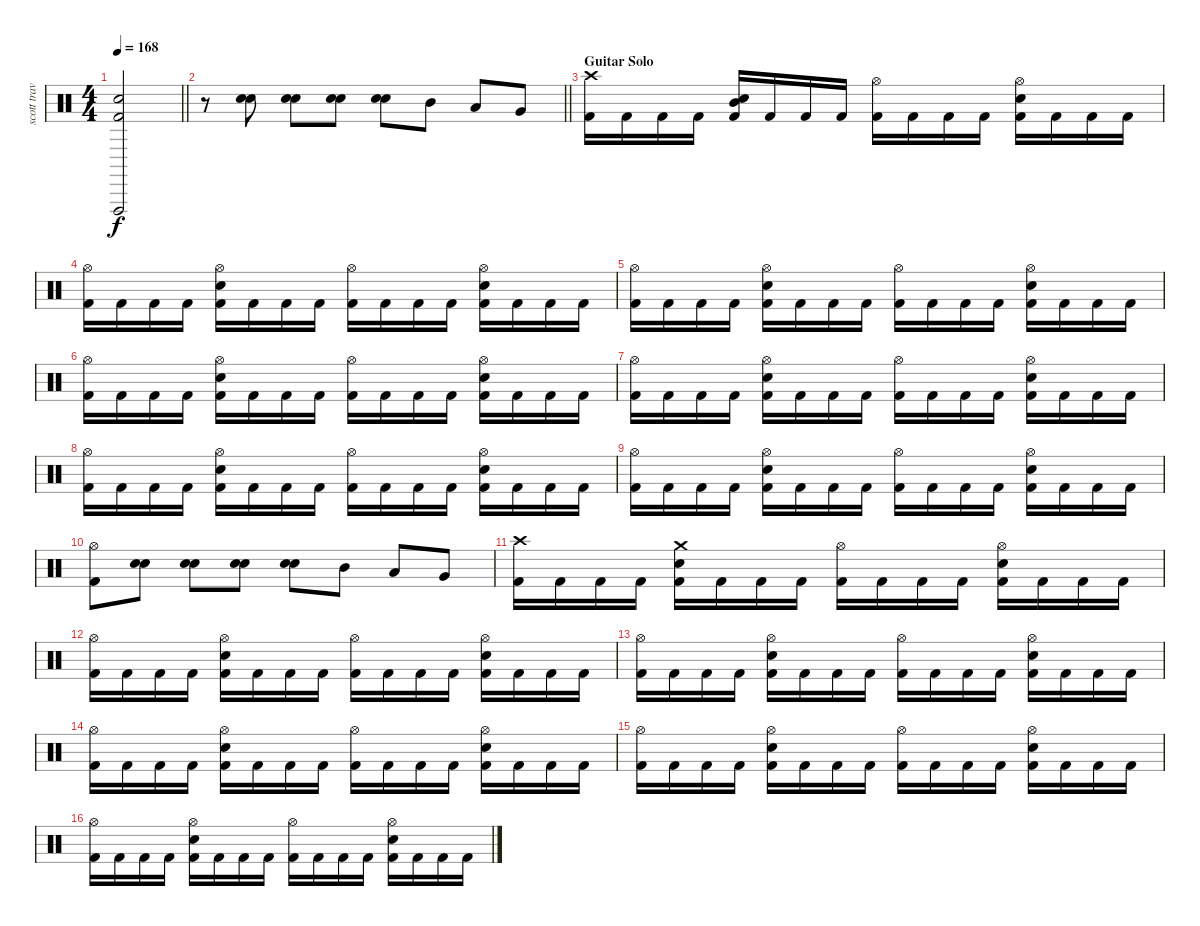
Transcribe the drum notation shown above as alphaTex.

\track ("scott travis" "scott trav") {instrument percussion}
\staff {score}
\articulation defaults
\ts (4 4)
\tempo 168
\clef neutral
\barLineRight lightlight
\ks c
("Vibraslap (hit)"{t} "Snare (hit) 2"{t} "Kick (hit) 2"{t}).2{dy f} |
\barLineRight lightlight
r.8 ("Snare (hit) 2" "Snare (hit) 2").8 ("Snare (hit) 2" "Snare (hit) 2").8 ("Snare (hit) 2" "Snare (hit) 2").8 ("Snare (hit) 2" "Snare (hit) 2").8 "Mid Tom (hit)".8 "Low Tom (hit)".8 "Very Low Tom (hit)".8 |
\section ("" "Guitar Solo")
("Crash high (hit)" "Kick (hit) 2").16 "Kick (hit) 2".16 "Kick (hit) 2".16 "Kick (hit) 2".16 ("Mid Tom (hit)" "Snare (hit) 2" "Kick (hit) 2").16 "Kick (hit) 2".16 "Kick (hit) 2".16 "Kick (hit) 2".16 ("Hi-Hat (open)" "Kick (hit) 2").16 "Kick (hit) 2".16 "Kick (hit) 2".16 "Kick (hit) 2".16 ("Hi-Hat (open)" "Snare (hit) 2" "Kick (hit) 2").16 "Kick (hit) 2".16 "Kick (hit) 2".16 "Kick (hit) 2".16 |
("Hi-Hat (open)" "Kick (hit) 2").16 "Kick (hit) 2".16 "Kick (hit) 2".16 "Kick (hit) 2".16 ("Hi-Hat (open)" "Snare (hit) 2" "Kick (hit) 2").16 "Kick (hit) 2".16 "Kick (hit) 2".16 "Kick (hit) 2".16 ("Hi-Hat (open)" "Kick (hit) 2").16 "Kick (hit) 2".16 "Kick (hit) 2".16 "Kick (hit) 2".16 ("Hi-Hat (open)" "Snare (hit) 2" "Kick (hit) 2").16 "Kick (hit) 2".16 "Kick (hit) 2".16 "Kick (hit) 2".16 |
("Hi-Hat (open)" "Kick (hit) 2").16 "Kick (hit) 2".16 "Kick (hit) 2".16 "Kick (hit) 2".16 ("Hi-Hat (open)" "Snare (hit) 2" "Kick (hit) 2").16 "Kick (hit) 2".16 "Kick (hit) 2".16 "Kick (hit) 2".16 ("Hi-Hat (open)" "Kick (hit) 2").16 "Kick (hit) 2".16 "Kick (hit) 2".16 "Kick (hit) 2".16 ("Hi-Hat (open)" "Snare (hit) 2" "Kick (hit) 2").16 "Kick (hit) 2".16 "Kick (hit) 2".16 "Kick (hit) 2".16 |
("Hi-Hat (open)" "Kick (hit) 2").16 "Kick (hit) 2".16 "Kick (hit) 2".16 "Kick (hit) 2".16 ("Hi-Hat (open)" "Snare (hit) 2" "Kick (hit) 2").16 "Kick (hit) 2".16 "Kick (hit) 2".16 "Kick (hit) 2".16 ("Hi-Hat (open)" "Kick (hit) 2").16 "Kick (hit) 2".16 "Kick (hit) 2".16 "Kick (hit) 2".16 ("Hi-Hat (open)" "Snare (hit) 2" "Kick (hit) 2").16 "Kick (hit) 2".16 "Kick (hit) 2".16 "Kick (hit) 2".16 |
("Hi-Hat (open)" "Kick (hit) 2").16 "Kick (hit) 2".16 "Kick (hit) 2".16 "Kick (hit) 2".16 ("Hi-Hat (open)" "Snare (hit) 2" "Kick (hit) 2").16 "Kick (hit) 2".16 "Kick (hit) 2".16 "Kick (hit) 2".16 ("Hi-Hat (open)" "Kick (hit) 2").16 "Kick (hit) 2".16 "Kick (hit) 2".16 "Kick (hit) 2".16 ("Hi-Hat (open)" "Snare (hit) 2" "Kick (hit) 2").16 "Kick (hit) 2".16 "Kick (hit) 2".16 "Kick (hit) 2".16 |
("Hi-Hat (open)" "Kick (hit) 2").16 "Kick (hit) 2".16 "Kick (hit) 2".16 "Kick (hit) 2".16 ("Hi-Hat (open)" "Snare (hit) 2" "Kick (hit) 2").16 "Kick (hit) 2".16 "Kick (hit) 2".16 "Kick (hit) 2".16 ("Hi-Hat (open)" "Kick (hit) 2").16 "Kick (hit) 2".16 "Kick (hit) 2".16 "Kick (hit) 2".16 ("Hi-Hat (open)" "Snare (hit) 2" "Kick (hit) 2").16 "Kick (hit) 2".16 "Kick (hit) 2".16 "Kick (hit) 2".16 |
("Hi-Hat (open)" "Kick (hit) 2").16 "Kick (hit) 2".16 "Kick (hit) 2".16 "Kick (hit) 2".16 ("Hi-Hat (open)" "Snare (hit) 2" "Kick (hit) 2").16 "Kick (hit) 2".16 "Kick (hit) 2".16 "Kick (hit) 2".16 ("Hi-Hat (open)" "Kick (hit) 2").16 "Kick (hit) 2".16 "Kick (hit) 2".16 "Kick (hit) 2".16 ("Hi-Hat (open)" "Snare (hit) 2" "Kick (hit) 2").16 "Kick (hit) 2".16 "Kick (hit) 2".16 "Kick (hit) 2".16 |
("Hi-Hat (open)" "Kick (hit) 2").8 ("Snare (hit) 2" "Snare (hit) 2").8 ("Snare (hit) 2" "Snare (hit) 2").8 ("Snare (hit) 2" "Snare (hit) 2").8 ("Snare (hit) 2" "Snare (hit) 2").8 "Mid Tom (hit)".8 "Low Tom (hit)".8 "Very Low Tom (hit)".8 |
("Crash high (hit)" "Kick (hit) 2").16 "Kick (hit) 2".16 "Kick (hit) 2".16 "Kick (hit) 2".16 ("Crash medium (hit)" "Snare (hit) 2" "Kick (hit) 2").16 "Kick (hit) 2".16 "Kick (hit) 2".16 "Kick (hit) 2".16 ("Hi-Hat (open)" "Kick (hit) 2").16 "Kick (hit) 2".16 "Kick (hit) 2".16 "Kick (hit) 2".16 ("Hi-Hat (open)" "Snare (hit) 2" "Kick (hit) 2").16 "Kick (hit) 2".16 "Kick (hit) 2".16 "Kick (hit) 2".16 |
("Hi-Hat (open)" "Kick (hit) 2").16 "Kick (hit) 2".16 "Kick (hit) 2".16 "Kick (hit) 2".16 ("Hi-Hat (open)" "Snare (hit) 2" "Kick (hit) 2").16 "Kick (hit) 2".16 "Kick (hit) 2".16 "Kick (hit) 2".16 ("Hi-Hat (open)" "Kick (hit) 2").16 "Kick (hit) 2".16 "Kick (hit) 2".16 "Kick (hit) 2".16 ("Hi-Hat (open)" "Snare (hit) 2" "Kick (hit) 2").16 "Kick (hit) 2".16 "Kick (hit) 2".16 "Kick (hit) 2".16 |
("Hi-Hat (open)" "Kick (hit) 2").16 "Kick (hit) 2".16 "Kick (hit) 2".16 "Kick (hit) 2".16 ("Hi-Hat (open)" "Snare (hit) 2" "Kick (hit) 2").16 "Kick (hit) 2".16 "Kick (hit) 2".16 "Kick (hit) 2".16 ("Hi-Hat (open)" "Kick (hit) 2").16 "Kick (hit) 2".16 "Kick (hit) 2".16 "Kick (hit) 2".16 ("Hi-Hat (open)" "Snare (hit) 2" "Kick (hit) 2").16 "Kick (hit) 2".16 "Kick (hit) 2".16 "Kick (hit) 2".16 |
("Hi-Hat (open)" "Kick (hit) 2").16 "Kick (hit) 2".16 "Kick (hit) 2".16 "Kick (hit) 2".16 ("Hi-Hat (open)" "Snare (hit) 2" "Kick (hit) 2").16 "Kick (hit) 2".16 "Kick (hit) 2".16 "Kick (hit) 2".16 ("Hi-Hat (open)" "Kick (hit) 2").16 "Kick (hit) 2".16 "Kick (hit) 2".16 "Kick (hit) 2".16 ("Hi-Hat (open)" "Snare (hit) 2" "Kick (hit) 2").16 "Kick (hit) 2".16 "Kick (hit) 2".16 "Kick (hit) 2".16 |
("Hi-Hat (open)" "Kick (hit) 2").16 "Kick (hit) 2".16 "Kick (hit) 2".16 "Kick (hit) 2".16 ("Hi-Hat (open)" "Snare (hit) 2" "Kick (hit) 2").16 "Kick (hit) 2".16 "Kick (hit) 2".16 "Kick (hit) 2".16 ("Hi-Hat (open)" "Kick (hit) 2").16 "Kick (hit) 2".16 "Kick (hit) 2".16 "Kick (hit) 2".16 ("Hi-Hat (open)" "Snare (hit) 2" "Kick (hit) 2").16 "Kick (hit) 2".16 "Kick (hit) 2".16 "Kick (hit) 2".16 |
("Hi-Hat (open)" "Kick (hit) 2").16 "Kick (hit) 2".16 "Kick (hit) 2".16 "Kick (hit) 2".16 ("Hi-Hat (open)" "Snare (hit) 2" "Kick (hit) 2").16 "Kick (hit) 2".16 "Kick (hit) 2".16 "Kick (hit) 2".16 ("Hi-Hat (open)" "Kick (hit) 2").16 "Kick (hit) 2".16 "Kick (hit) 2".16 "Kick (hit) 2".16 ("Hi-Hat (open)" "Snare (hit) 2" "Kick (hit) 2").16 "Kick (hit) 2".16 "Kick (hit) 2".16 "Kick (hit) 2".16
